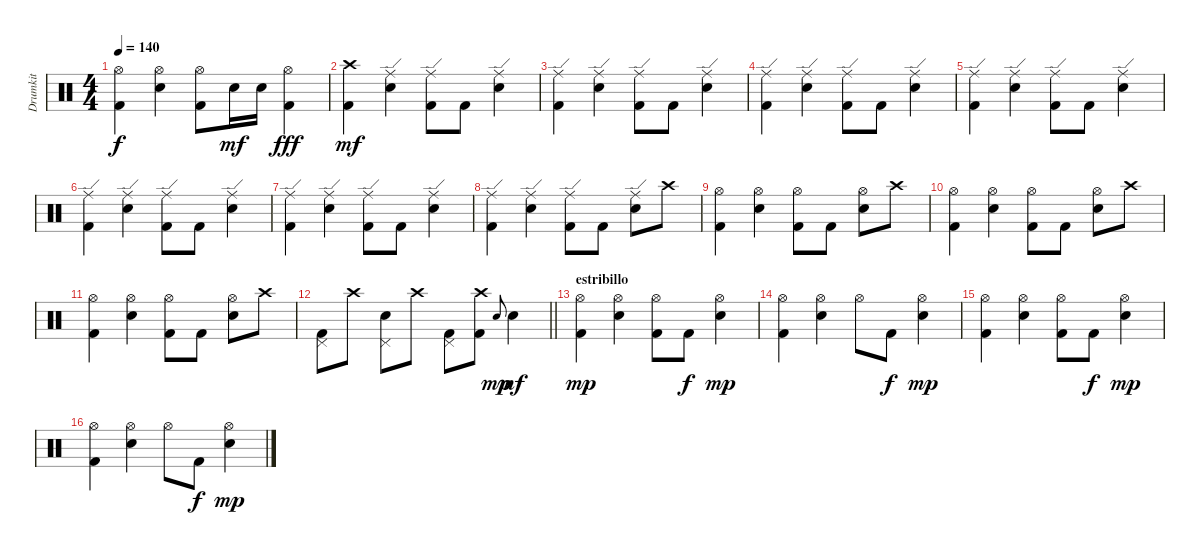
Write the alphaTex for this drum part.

\track ("Drumkit" "Drumkit") {instrument percussion}
\staff {score}
\articulation defaults
\ts (4 4)
\tempo 140
\clef neutral
\ks c
("Hi-Hat (open)" "Kick (hit) 2").4{dy f} ("Hi-Hat (open)" "Snare (hit) 2").4 ("Hi-Hat (open)" "Kick (hit) 2").8 "Snare (hit) 2".16{dy mf} "Snare (hit) 2".16 ("Hi-Hat (open)" "Kick (hit) 2").4{dy fff} |
("Crash high (hit)" "Kick (hit) 2").4{dy mf} ("Ride (edge)" "Snare (hit) 2").4 ("Ride (edge)" "Kick (hit) 2").8 "Kick (hit) 2".8 ("Ride (edge)" "Snare (hit) 2").4 |
("Ride (edge)" "Kick (hit) 2").4 ("Ride (edge)" "Snare (hit) 2").4 ("Ride (edge)" "Kick (hit) 2").8 "Kick (hit) 2".8 ("Ride (edge)" "Snare (hit) 2").4 |
("Ride (edge)" "Kick (hit) 2").4 ("Ride (edge)" "Snare (hit) 2").4 ("Ride (edge)" "Kick (hit) 2").8 "Kick (hit) 2".8 ("Ride (edge)" "Snare (hit) 2").4 |
("Ride (edge)" "Kick (hit) 2").4 ("Ride (edge)" "Snare (hit) 2").4 ("Ride (edge)" "Kick (hit) 2").8 "Kick (hit) 2".8 ("Ride (edge)" "Snare (hit) 2").4 |
("Ride (edge)" "Kick (hit) 2").4 ("Ride (edge)" "Snare (hit) 2").4 ("Ride (edge)" "Kick (hit) 2").8 "Kick (hit) 2".8 ("Ride (edge)" "Snare (hit) 2").4 |
("Ride (edge)" "Kick (hit) 2").4 ("Ride (edge)" "Snare (hit) 2").4 ("Ride (edge)" "Kick (hit) 2").8 "Kick (hit) 2".8 ("Ride (edge)" "Snare (hit) 2").4 |
("Ride (edge)" "Kick (hit) 2").4 ("Ride (edge)" "Snare (hit) 2").4 ("Ride (edge)" "Kick (hit) 2").8 "Kick (hit) 2".8 ("Ride (edge)" "Snare (hit) 2").8 "Crash high (hit)".8 |
("Hi-Hat (open)" "Kick (hit) 2").4 ("Hi-Hat (open)" "Snare (hit) 2").4 ("Hi-Hat (open)" "Kick (hit) 2").8 "Kick (hit) 2".8 ("Hi-Hat (open)" "Snare (hit) 2").8 "Crash high (hit)".8 |
("Hi-Hat (open)" "Kick (hit) 2").4 ("Hi-Hat (open)" "Snare (hit) 2").4 ("Hi-Hat (open)" "Kick (hit) 2").8 "Kick (hit) 2".8 ("Hi-Hat (open)" "Snare (hit) 2").8 "Crash high (hit)".8 |
("Hi-Hat (open)" "Kick (hit) 2").4 ("Hi-Hat (open)" "Snare (hit) 2").4 ("Hi-Hat (open)" "Kick (hit) 2").8 "Kick (hit) 2".8 ("Hi-Hat (open)" "Snare (hit) 2").8 "Crash high (hit)".8 |
\barLineRight lightlight
("Pedal Hi-Hat (hit)" "Kick (hit) 2").8 "Crash high (hit)".8 ("Pedal Hi-Hat (hit)" "Snare (hit) 2").8 "Crash high (hit)".8 ("Pedal Hi-Hat (hit)" "Kick (hit) 2").8 ("Crash high (hit)" "Kick (hit) 2").8 "Snare (hit)".8{gr onbeat dy mp} "Snare (hit) 2".4{dy mf} |
\section ("" "estribillo")
("Hi-Hat (open)" "Kick (hit) 2").4{dy mp} ("Hi-Hat (open)" "Snare (hit) 2").4 ("Hi-Hat (open)" "Kick (hit) 2").8 "Kick (hit) 2".8{dy f} ("Hi-Hat (open)" "Snare (hit) 2").4{dy mp} |
("Hi-Hat (open)" "Kick (hit) 2").4 ("Hi-Hat (open)" "Snare (hit) 2").4 "Hi-Hat (open)".8 "Kick (hit) 2".8{dy f} ("Hi-Hat (open)" "Snare (hit) 2").4{dy mp} |
("Hi-Hat (open)" "Kick (hit) 2").4 ("Hi-Hat (open)" "Snare (hit) 2").4 ("Hi-Hat (open)" "Kick (hit) 2").8 "Kick (hit) 2".8{dy f} ("Hi-Hat (open)" "Snare (hit) 2").4{dy mp} |
("Hi-Hat (open)" "Kick (hit) 2").4 ("Hi-Hat (open)" "Snare (hit) 2").4 "Hi-Hat (open)".8 "Kick (hit) 2".8{dy f} ("Hi-Hat (open)" "Snare (hit) 2").4{dy mp}
